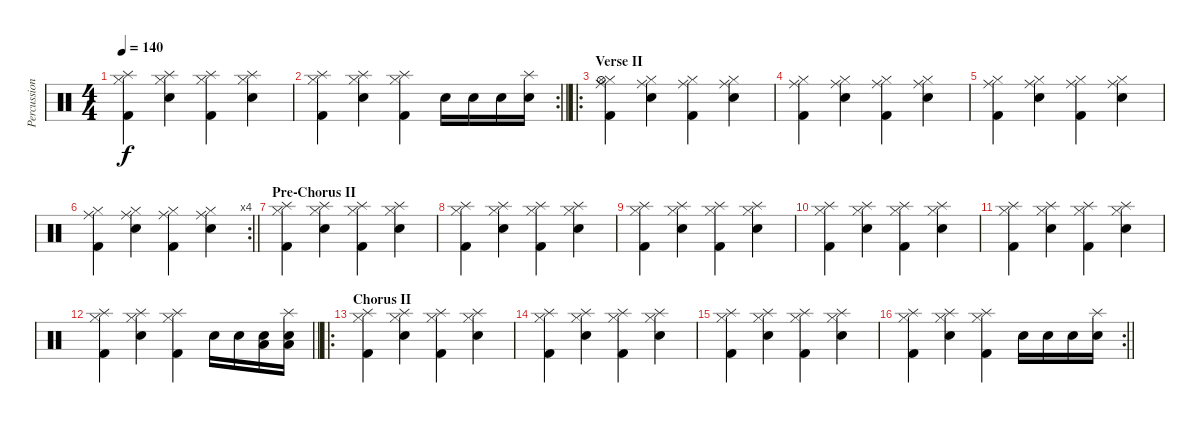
\track ("Percussion" "Percussion") {instrument percussion}
\staff {score}
\articulation defaults
\ts (4 4)
\tempo 140
\clef neutral
\ks c
("Kick (hit) 2" "Hi-Hat (closed)" "Splash (hit)").4{dy f} ("Hi-Hat (closed)" "Electric Snare (hit)" "Splash (hit)").4 ("Kick (hit) 2" "Hi-Hat (closed)" "Splash (hit)").4 ("Hi-Hat (closed)" "Electric Snare (hit)" "Splash (hit)").4 |
\rc 2
\barLineRight lightlight
("Kick (hit) 2" "Hi-Hat (closed)" "Splash (hit)").4 ("Hi-Hat (closed)" "Electric Snare (hit)" "Splash (hit)").4 ("Kick (hit) 2" "Hi-Hat (closed)" "Splash (hit)").4 "Electric Snare (hit)".16 "Electric Snare (hit)".16 "Electric Snare (hit)".16 ("Electric Snare (hit)" "Splash (hit)").16 |
\ro
\section ("" "Verse II")
("Kick (hit) 2" "Hi-Hat (closed)" "Ride (middle)" "Hi-Hat (open)").4 ("Hi-Hat (closed)" "Electric Snare (hit)" "Ride (middle)").4 ("Kick (hit) 2" "Hi-Hat (closed)" "Ride (middle)").4 ("Hi-Hat (closed)" "Electric Snare (hit)" "Ride (middle)").4 |
("Kick (hit) 2" "Hi-Hat (closed)" "Ride (middle)").4 ("Hi-Hat (closed)" "Electric Snare (hit)" "Ride (middle)").4 ("Kick (hit) 2" "Hi-Hat (closed)" "Ride (middle)").4 ("Hi-Hat (closed)" "Electric Snare (hit)" "Ride (middle)").4 |
("Kick (hit) 2" "Hi-Hat (closed)" "Ride (middle)").4 ("Hi-Hat (closed)" "Electric Snare (hit)" "Ride (middle)").4 ("Kick (hit) 2" "Hi-Hat (closed)" "Ride (middle)").4 ("Hi-Hat (closed)" "Electric Snare (hit)" "Ride (middle)").4 |
\rc 4
\barLineRight lightlight
("Kick (hit) 2" "Hi-Hat (closed)" "Ride (middle)").4 ("Hi-Hat (closed)" "Electric Snare (hit)" "Ride (middle)").4 ("Kick (hit) 2" "Hi-Hat (closed)" "Ride (middle)").4 ("Hi-Hat (closed)" "Electric Snare (hit)" "Ride (middle)").4 |
\section ("" "Pre-Chorus II")
("Kick (hit) 2" "Hi-Hat (closed)" "Splash (hit)").4 ("Hi-Hat (closed)" "Electric Snare (hit)" "Splash (hit)").4 ("Kick (hit) 2" "Hi-Hat (closed)" "Splash (hit)").4 ("Hi-Hat (closed)" "Electric Snare (hit)" "Splash (hit)").4 |
("Kick (hit) 2" "Hi-Hat (closed)" "Splash (hit)").4 ("Hi-Hat (closed)" "Electric Snare (hit)" "Splash (hit)").4 ("Kick (hit) 2" "Hi-Hat (closed)" "Splash (hit)").4 ("Hi-Hat (closed)" "Electric Snare (hit)" "Splash (hit)").4 |
("Kick (hit) 2" "Hi-Hat (closed)" "Splash (hit)").4 ("Hi-Hat (closed)" "Electric Snare (hit)" "Splash (hit)").4 ("Kick (hit) 2" "Hi-Hat (closed)" "Splash (hit)").4 ("Hi-Hat (closed)" "Electric Snare (hit)" "Splash (hit)").4 |
("Kick (hit) 2" "Hi-Hat (closed)" "Splash (hit)").4 ("Hi-Hat (closed)" "Electric Snare (hit)" "Splash (hit)").4 ("Kick (hit) 2" "Hi-Hat (closed)" "Splash (hit)").4 ("Hi-Hat (closed)" "Electric Snare (hit)" "Splash (hit)").4 |
("Kick (hit) 2" "Hi-Hat (closed)" "Splash (hit)").4 ("Hi-Hat (closed)" "Electric Snare (hit)" "Splash (hit)").4 ("Kick (hit) 2" "Hi-Hat (closed)" "Splash (hit)").4 ("Hi-Hat (closed)" "Electric Snare (hit)" "Splash (hit)").4 |
\barLineRight lightlight
("Kick (hit) 2" "Hi-Hat (closed)" "Splash (hit)").4 ("Hi-Hat (closed)" "Electric Snare (hit)" "Splash (hit)").4 ("Kick (hit) 2" "Hi-Hat (closed)" "Splash (hit)").4 "Electric Snare (hit)".16 "Electric Snare (hit)".16 ("Electric Snare (hit)" "Low Tom (hit)").16 ("Electric Snare (hit)" "Low Tom (hit)" "Splash (hit)").16 |
\ro
\section ("" "Chorus II")
("Kick (hit) 2" "Hi-Hat (closed)" "Splash (hit)").4 ("Hi-Hat (closed)" "Electric Snare (hit)" "Splash (hit)").4 ("Kick (hit) 2" "Hi-Hat (closed)" "Splash (hit)").4 ("Hi-Hat (closed)" "Electric Snare (hit)" "Splash (hit)").4 |
("Kick (hit) 2" "Hi-Hat (closed)" "Splash (hit)").4 ("Hi-Hat (closed)" "Electric Snare (hit)" "Splash (hit)").4 ("Kick (hit) 2" "Hi-Hat (closed)" "Splash (hit)").4 ("Hi-Hat (closed)" "Electric Snare (hit)" "Splash (hit)").4 |
("Kick (hit) 2" "Hi-Hat (closed)" "Splash (hit)").4 ("Hi-Hat (closed)" "Electric Snare (hit)" "Splash (hit)").4 ("Kick (hit) 2" "Hi-Hat (closed)" "Splash (hit)").4 ("Hi-Hat (closed)" "Electric Snare (hit)" "Splash (hit)").4 |
\rc 2
\barLineRight lightlight
("Kick (hit) 2" "Hi-Hat (closed)" "Splash (hit)").4 ("Hi-Hat (closed)" "Electric Snare (hit)" "Splash (hit)").4 ("Kick (hit) 2" "Hi-Hat (closed)" "Splash (hit)").4 "Electric Snare (hit)".16 "Electric Snare (hit)".16 "Electric Snare (hit)".16 ("Electric Snare (hit)" "Splash (hit)").16
